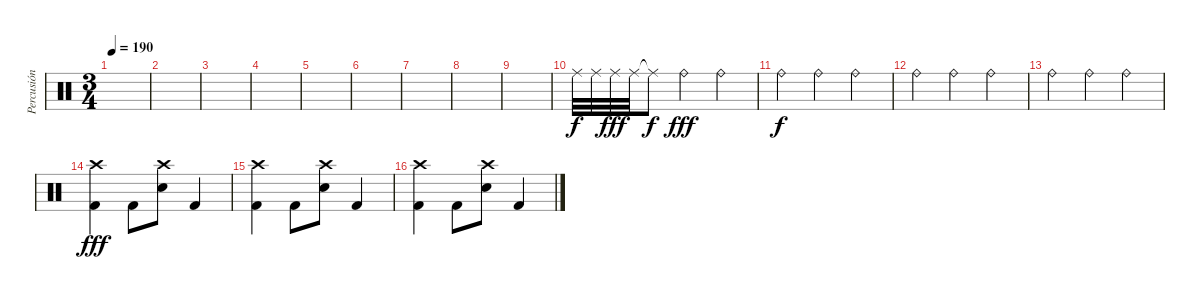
\track ("Percusión" "Percusión") {instrument percussion}
\staff {score}
\articulation defaults
\ts (3 4)
\tempo 190
\clef neutral
\ks c
|
|
|
|
|
|
|
|
|
"Ride (middle)".32{dy f} "Ride (middle)".32 "Ride (middle)".32{dy fff} "Ride (middle)".32 "Ride (middle)"{t}.8{dy f} "Ride (bell)".4{dy fff} "Ride (bell)".4 |
"Ride (bell)".4{dy f} "Ride (bell)".4 "Ride (bell)".4 |
"Ride (bell)".4 "Ride (bell)".4 "Ride (bell)".4 |
"Ride (bell)".4 "Ride (bell)".4 "Ride (bell)".4 |
("Crash high (hit)" "Kick (hit) 2").4{dy fff} "Kick (hit) 2".8 ("Crash high (hit)" "Electric Snare (hit)").8 "Kick (hit) 2".4 |
("Crash high (hit)" "Kick (hit) 2").4 "Kick (hit) 2".8 ("Crash high (hit)" "Electric Snare (hit)").8 "Kick (hit) 2".4 |
("Crash high (hit)" "Kick (hit) 2").4 "Kick (hit) 2".8 ("Crash high (hit)" "Electric Snare (hit)").8 "Kick (hit) 2".4
